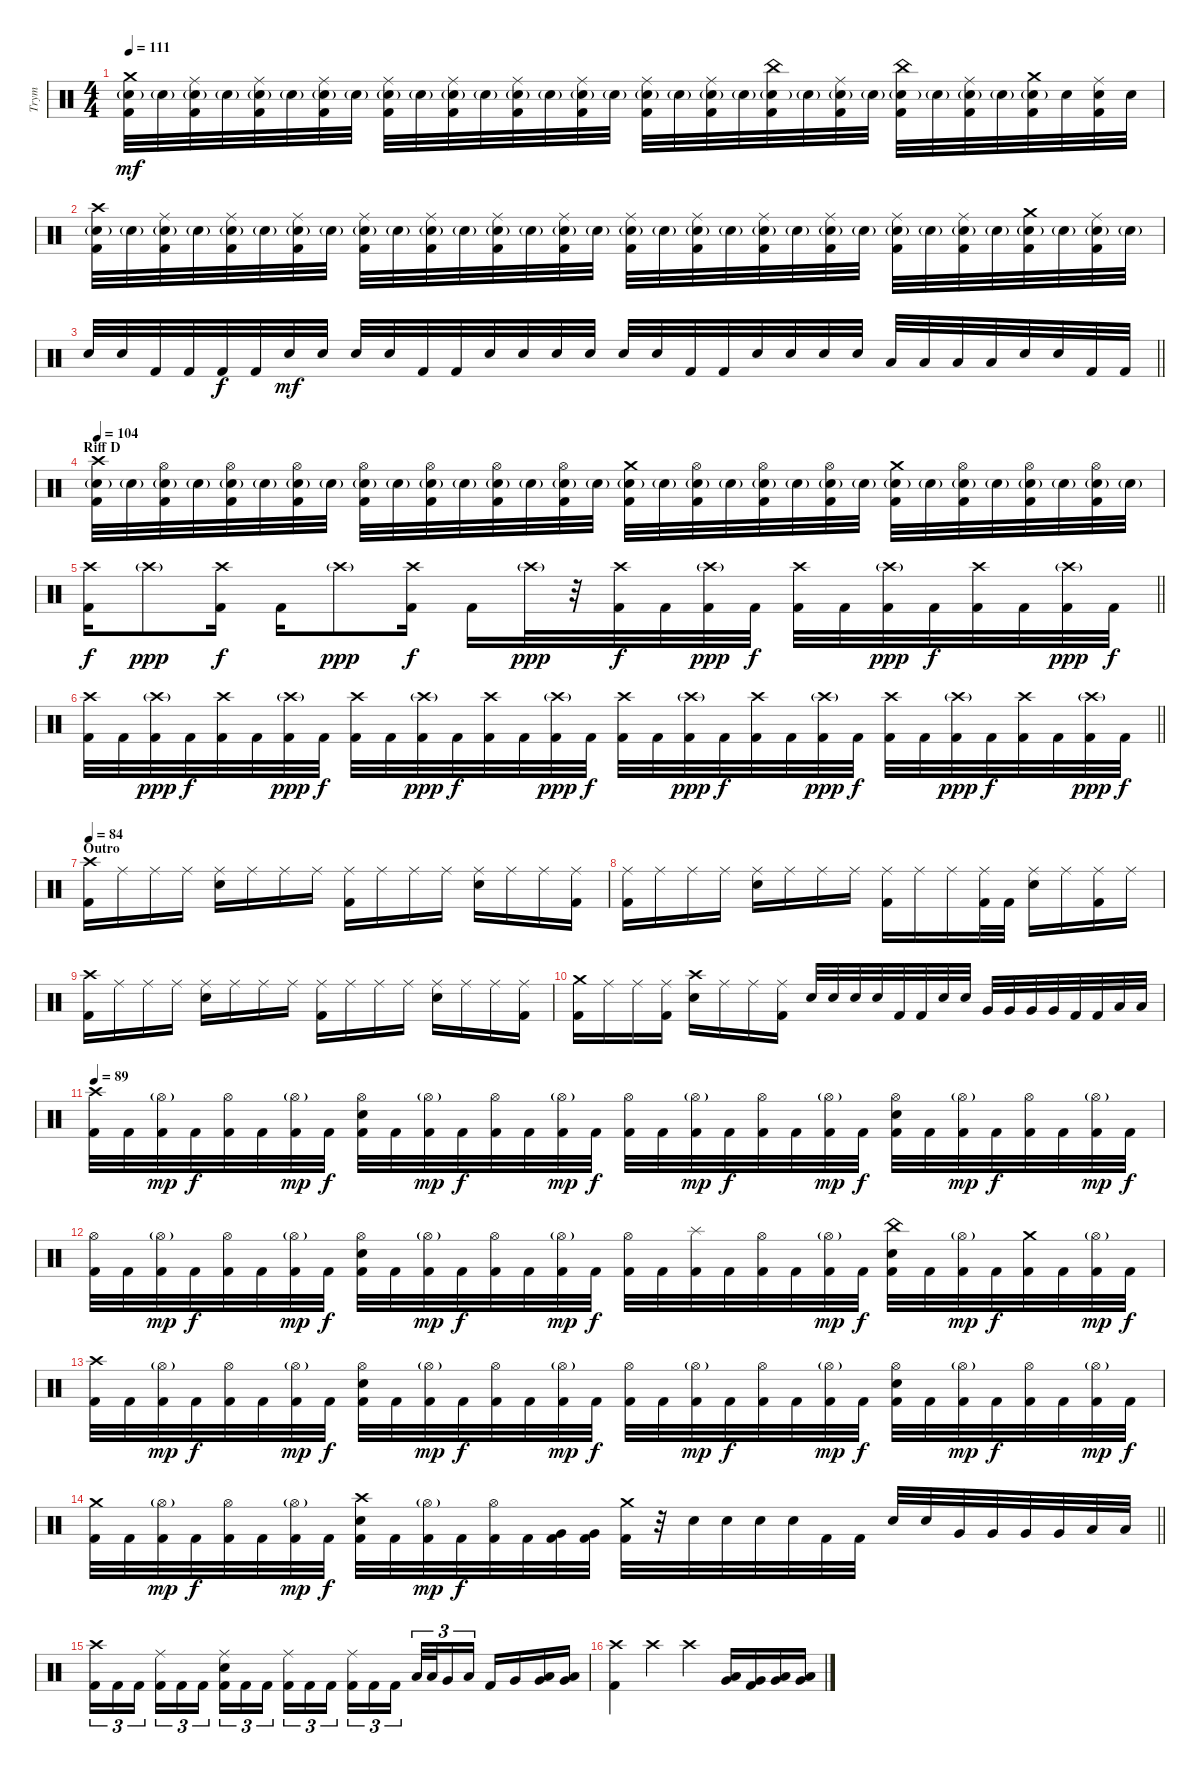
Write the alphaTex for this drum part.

\track ("Trym" "Trym") {instrument percussion}
\staff {score}
\articulation defaults
\ts (4 4)
\tempo 111
\clef neutral
\ks c
("Crash medium (hit)" "Snare (hit) 2"{g} "Kick (hit) 2").32{dy mf} "Snare (hit) 2"{g}.32 ("Ride (middle)" "Snare (hit) 2"{g} "Kick (hit) 2").32 "Snare (hit) 2"{g}.32 ("Ride (middle)" "Snare (hit) 2"{g} "Kick (hit) 2").32 "Snare (hit) 2"{g}.32 ("Ride (middle)" "Snare (hit) 2"{g} "Kick (hit) 2").32 "Snare (hit) 2"{g}.32 ("Ride (middle)" "Snare (hit) 2"{g} "Kick (hit) 2").32 "Snare (hit) 2"{g}.32 ("Ride (middle)" "Snare (hit) 2"{g} "Kick (hit) 2").32 "Snare (hit) 2"{g}.32 ("Ride (middle)" "Snare (hit) 2"{g} "Kick (hit) 2").32 "Snare (hit) 2"{g}.32 ("Ride (middle)" "Snare (hit) 2"{g} "Kick (hit) 2").32 "Snare (hit) 2"{g}.32 ("Ride (middle)" "Snare (hit) 2"{g} "Kick (hit) 2").32 "Snare (hit) 2"{g}.32 ("Ride (middle)" "Snare (hit) 2"{g} "Kick (hit) 2").32 "Snare (hit) 2"{g}.32 ("China (hit)" "Snare (hit) 2"{g} "Kick (hit) 2").32 "Snare (hit) 2"{g}.32 ("Ride (middle)" "Snare (hit) 2"{g} "Kick (hit) 2").32 "Snare (hit) 2"{g}.32 ("China (hit)" "Snare (hit) 2"{g} "Kick (hit) 2").32 "Snare (hit) 2"{g}.32 ("Ride (middle)" "Snare (hit) 2"{g} "Kick (hit) 2").32 "Snare (hit) 2"{g}.32 ("Crash medium (hit)" "Snare (hit) 2"{g} "Kick (hit) 2").32 "Snare (hit) 2".32 ("Ride (middle)" "Snare (hit) 2" "Kick (hit) 2").32 "Snare (hit) 2".32 |
("Crash high (hit)" "Snare (hit) 2"{g} "Kick (hit) 2").32 "Snare (hit) 2"{g}.32 ("Ride (middle)" "Snare (hit) 2"{g} "Kick (hit) 2").32 "Snare (hit) 2"{g}.32 ("Ride (middle)" "Snare (hit) 2"{g} "Kick (hit) 2").32 "Snare (hit) 2"{g}.32 ("Ride (middle)" "Snare (hit) 2"{g} "Kick (hit) 2").32 "Snare (hit) 2"{g}.32 ("Ride (middle)" "Snare (hit) 2"{g} "Kick (hit) 2").32 "Snare (hit) 2"{g}.32 ("Ride (middle)" "Snare (hit) 2"{g} "Kick (hit) 2").32 "Snare (hit) 2"{g}.32 ("Ride (middle)" "Snare (hit) 2"{g} "Kick (hit) 2").32 "Snare (hit) 2"{g}.32 ("Ride (middle)" "Snare (hit) 2"{g} "Kick (hit) 2").32 "Snare (hit) 2"{g}.32 ("Ride (middle)" "Snare (hit) 2"{g} "Kick (hit) 2").32 "Snare (hit) 2"{g}.32 ("Ride (middle)" "Snare (hit) 2"{g} "Kick (hit) 2").32 "Snare (hit) 2"{g}.32 ("Ride (middle)" "Snare (hit) 2"{g} "Kick (hit) 2").32 "Snare (hit) 2"{g}.32 ("Ride (middle)" "Snare (hit) 2"{g} "Kick (hit) 2").32 "Snare (hit) 2"{g}.32 ("Ride (middle)" "Snare (hit) 2"{g} "Kick (hit) 2").32 "Snare (hit) 2"{g}.32 ("Ride (middle)" "Snare (hit) 2"{g} "Kick (hit) 2").32 "Snare (hit) 2"{g}.32 ("Crash medium (hit)" "Snare (hit) 2"{g} "Kick (hit) 2").32 "Snare (hit) 2"{g}.32 ("Ride (middle)" "Snare (hit) 2"{g} "Kick (hit) 2").32 "Snare (hit) 2"{g}.32 |
\barLineRight lightlight "Snare (hit) 2".32 "Snare (hit) 2".32 "Kick (hit) 2".32 "Kick (hit) 2".32 "Kick (hit) 2".32{dy f} "Kick (hit) 2".32 "Snare (hit) 2".32{dy mf} "Snare (hit) 2".32 "Snare (hit) 2".32 "Snare (hit) 2".32 "Kick (hit) 2".32 "Kick (hit) 2".32 "Snare (hit) 2".32 "Snare (hit) 2".32 "Snare (hit) 2".32 "Snare (hit) 2".32 "Snare (hit) 2".32 "Snare (hit) 2".32 "Kick (hit) 2".32 "Kick (hit) 2".32 "Snare (hit) 2".32 "Snare (hit) 2".32 "Snare (hit) 2".32 "Snare (hit) 2".32 "Low Tom (hit)".32 "Low Tom (hit)".32 "Low Tom (hit)".32 "Low Tom (hit)".32 "Snare (hit) 2".32 "Snare (hit) 2".32 "Kick (hit) 2".32 "Kick (hit) 2".32
|
\section ("" "Riff D")
\tempo 104
("Crash high (hit)" "Snare (hit) 2"{g} "Kick (hit) 2").32 "Snare (hit) 2"{g}.32 ("Hi-Hat (open)" "Snare (hit) 2"{g} "Kick (hit) 2").32 "Snare (hit) 2"{g}.32 ("Hi-Hat (open)" "Snare (hit) 2"{g} "Kick (hit) 2").32 "Snare (hit) 2"{g}.32 ("Hi-Hat (open)" "Snare (hit) 2"{g} "Kick (hit) 2").32 "Snare (hit) 2"{g}.32 ("Hi-Hat (open)" "Snare (hit) 2"{g} "Kick (hit) 2").32 "Snare (hit) 2"{g}.32 ("Hi-Hat (open)" "Snare (hit) 2"{g} "Kick (hit) 2").32 "Snare (hit) 2"{g}.32 ("Hi-Hat (open)" "Snare (hit) 2"{g} "Kick (hit) 2").32 "Snare (hit) 2"{g}.32 ("Hi-Hat (open)" "Snare (hit) 2"{g} "Kick (hit) 2").32 "Snare (hit) 2"{g}.32 ("Crash medium (hit)" "Snare (hit) 2"{g} "Kick (hit) 2").32 "Snare (hit) 2"{g}.32 ("Hi-Hat (open)" "Snare (hit) 2"{g} "Kick (hit) 2").32 "Snare (hit) 2"{g}.32 ("Hi-Hat (open)" "Snare (hit) 2"{g} "Kick (hit) 2").32 "Snare (hit) 2"{g}.32 ("Hi-Hat (open)" "Snare (hit) 2"{g} "Kick (hit) 2").32 "Snare (hit) 2"{g}.32 ("Crash medium (hit)" "Snare (hit) 2"{g} "Kick (hit) 2").32 "Snare (hit) 2"{g}.32 ("Hi-Hat (open)" "Snare (hit) 2"{g} "Kick (hit) 2").32 "Snare (hit) 2"{g}.32 ("Hi-Hat (open)" "Snare (hit) 2"{g} "Kick (hit) 2").32 "Snare (hit) 2"{g}.32 ("Hi-Hat (open)" "Snare (hit) 2"{g} "Kick (hit) 2").32 "Snare (hit) 2"{g}.32 |
\barLineRight lightlight
("Crash high (hit)" "Kick (hit) 2").16{dy f} "Crash high (hit)"{g}.8{dy ppp} ("Crash high (hit)" "Kick (hit) 2").16{dy f} "Kick (hit) 2".16 "Crash high (hit)"{g}.8{dy ppp} ("Crash high (hit)" "Kick (hit) 2").16{dy f} "Kick (hit) 2".16 "Crash high (hit)"{g}.32{dy ppp} r.32 ("Crash high (hit)" "Kick (hit) 2").32{dy f} "Kick (hit) 2".32 ("Crash high (hit)"{g} "Kick (hit) 2").32{dy ppp} "Kick (hit) 2".32{dy f} ("Crash high (hit)" "Kick (hit) 2").32 "Kick (hit) 2".32 ("Crash high (hit)"{g} "Kick (hit) 2").32{dy ppp} "Kick (hit) 2".32{dy f} ("Crash high (hit)" "Kick (hit) 2").32 "Kick (hit) 2".32 ("Crash high (hit)"{g} "Kick (hit) 2").32{dy ppp} "Kick (hit) 2".32{dy f} |
\barLineRight lightlight
("Crash high (hit)" "Kick (hit) 2").32 "Kick (hit) 2".32 ("Crash high (hit)"{g} "Kick (hit) 2").32{dy ppp} "Kick (hit) 2".32{dy f} ("Crash high (hit)" "Kick (hit) 2").32 "Kick (hit) 2".32 ("Crash high (hit)"{g} "Kick (hit) 2").32{dy ppp} "Kick (hit) 2".32{dy f} ("Crash high (hit)" "Kick (hit) 2").32 "Kick (hit) 2".32 ("Crash high (hit)"{g} "Kick (hit) 2").32{dy ppp} "Kick (hit) 2".32{dy f} ("Crash high (hit)" "Kick (hit) 2").32 "Kick (hit) 2".32 ("Crash high (hit)"{g} "Kick (hit) 2").32{dy ppp} "Kick (hit) 2".32{dy f} ("Crash high (hit)" "Kick (hit) 2").32 "Kick (hit) 2".32 ("Crash high (hit)"{g} "Kick (hit) 2").32{dy ppp} "Kick (hit) 2".32{dy f} ("Crash high (hit)" "Kick (hit) 2").32 "Kick (hit) 2".32 ("Crash high (hit)"{g} "Kick (hit) 2").32{dy ppp} "Kick (hit) 2".32{dy f} ("Crash high (hit)" "Kick (hit) 2").32 "Kick (hit) 2".32 ("Crash high (hit)"{g} "Kick (hit) 2").32{dy ppp} "Kick (hit) 2".32{dy f} ("Crash high (hit)" "Kick (hit) 2").32 "Kick (hit) 2".32 ("Crash high (hit)"{g} "Kick (hit) 2").32{dy ppp} "Kick (hit) 2".32{dy f} |
\section ("" "Outro")
\tempo 84
("Crash high (hit)" "Kick (hit) 2").16 "Ride (middle)".16 "Ride (middle)".16 "Ride (middle)".16 ("Ride (middle)" "Snare (hit) 2").16 "Ride (middle)".16 "Ride (middle)".16 "Ride (middle)".16 ("Ride (middle)" "Kick (hit) 2").16 "Ride (middle)".16 "Ride (middle)".16 "Ride (middle)".16 ("Ride (middle)" "Snare (hit) 2").16 "Ride (middle)".16 "Ride (middle)".16 ("Ride (middle)" "Kick (hit) 2").16 |
("Ride (middle)" "Kick (hit) 2").16 "Ride (middle)".16 "Ride (middle)".16 "Ride (middle)".16 ("Ride (middle)" "Snare (hit) 2").16 "Ride (middle)".16 "Ride (middle)".16 "Ride (middle)".16 ("Ride (middle)" "Kick (hit) 2").16 "Ride (middle)".16 "Ride (middle)".16 ("Ride (middle)" "Kick (hit) 2").32 "Kick (hit) 2".32 ("Ride (middle)" "Snare (hit) 2").16 "Ride (middle)".16 ("Ride (middle)" "Kick (hit) 2").16 "Ride (middle)".16 |
("Crash high (hit)" "Kick (hit) 2").16 "Ride (middle)".16 "Ride (middle)".16 "Ride (middle)".16 ("Ride (middle)" "Snare (hit) 2").16 "Ride (middle)".16 "Ride (middle)".16 "Ride (middle)".16 ("Ride (middle)" "Kick (hit) 2").16 "Ride (middle)".16 "Ride (middle)".16 "Ride (middle)".16 ("Ride (middle)" "Snare (hit) 2").16 "Ride (middle)".16 "Ride (middle)".16 ("Ride (middle)" "Kick (hit) 2").16 |
("Crash medium (hit)" "Kick (hit) 2").16 "Ride (middle)".16 "Ride (middle)".16 ("Ride (middle)" "Kick (hit) 2").16 ("Crash high (hit)" "Snare (hit) 2").16 "Ride (middle)".16 "Ride (middle)".16 ("Ride (middle)" "Kick (hit) 2").16 "Snare (hit) 2".32 "Snare (hit) 2".32 "Snare (hit) 2".32 "Snare (hit) 2".32 "Kick (hit) 2".32 "Kick (hit) 2".32 "Snare (hit) 2".32 "Snare (hit) 2".32 "Very Low Tom (hit)".32 "Very Low Tom (hit)".32 "Very Low Tom (hit)".32 "Very Low Tom (hit)".32 "Kick (hit) 2".32 "Kick (hit) 2".32 "Low Floor Tom (hit)".32 "Low Floor Tom (hit)".32 |
\tempo 89
("Crash high (hit)" "Kick (hit) 2").32 "Kick (hit) 2".32 ("Hi-Hat (open)"{g} "Kick (hit) 2").32{dy mp} "Kick (hit) 2".32{dy f} ("Hi-Hat (open)" "Kick (hit) 2").32 "Kick (hit) 2".32 ("Hi-Hat (open)"{g} "Kick (hit) 2").32{dy mp} "Kick (hit) 2".32{dy f} ("Hi-Hat (open)" "Snare (hit) 2" "Kick (hit) 2").32 "Kick (hit) 2".32 ("Hi-Hat (open)"{g} "Kick (hit) 2").32{dy mp} "Kick (hit) 2".32{dy f} ("Hi-Hat (open)" "Kick (hit) 2").32 "Kick (hit) 2".32 ("Hi-Hat (open)"{g} "Kick (hit) 2").32{dy mp} "Kick (hit) 2".32{dy f} ("Hi-Hat (open)" "Kick (hit) 2").32 "Kick (hit) 2".32 ("Hi-Hat (open)"{g} "Kick (hit) 2").32{dy mp} "Kick (hit) 2".32{dy f} ("Hi-Hat (open)" "Kick (hit) 2").32 "Kick (hit) 2".32 ("Hi-Hat (open)"{g} "Kick (hit) 2").32{dy mp} "Kick (hit) 2".32{dy f} ("Hi-Hat (open)" "Snare (hit) 2" "Kick (hit) 2").32 "Kick (hit) 2".32 ("Hi-Hat (open)"{g} "Kick (hit) 2").32{dy mp} "Kick (hit) 2".32{dy f} ("Hi-Hat (open)" "Kick (hit) 2").32 "Kick (hit) 2".32 ("Hi-Hat (open)"{g} "Kick (hit) 2").32{dy mp} "Kick (hit) 2".32{dy f} |
("Hi-Hat (open)" "Kick (hit) 2").32 "Kick (hit) 2".32 ("Hi-Hat (open)"{g} "Kick (hit) 2").32{dy mp} "Kick (hit) 2".32{dy f} ("Hi-Hat (open)" "Kick (hit) 2").32 "Kick (hit) 2".32 ("Hi-Hat (open)"{g} "Kick (hit) 2").32{dy mp} "Kick (hit) 2".32{dy f} ("Hi-Hat (open)" "Snare (hit) 2" "Kick (hit) 2").32 "Kick (hit) 2".32 ("Hi-Hat (open)"{g} "Kick (hit) 2").32{dy mp} "Kick (hit) 2".32{dy f} ("Hi-Hat (open)" "Kick (hit) 2").32 "Kick (hit) 2".32 ("Hi-Hat (open)"{g} "Kick (hit) 2").32{dy mp} "Kick (hit) 2".32{dy f} ("Hi-Hat (open)" "Kick (hit) 2").32 "Kick (hit) 2".32 ("Splash (hit)" "Kick (hit) 2").32 "Kick (hit) 2".32 ("Hi-Hat (open)" "Kick (hit) 2").32 "Kick (hit) 2".32 ("Hi-Hat (open)"{g} "Kick (hit) 2").32{dy mp} "Kick (hit) 2".32{dy f} ("China (hit)" "Snare (hit) 2" "Kick (hit) 2").32 "Kick (hit) 2".32 ("Hi-Hat (open)"{g} "Kick (hit) 2").32{dy mp} "Kick (hit) 2".32{dy f} ("Crash medium (hit)" "Kick (hit) 2").32 "Kick (hit) 2".32 ("Hi-Hat (open)"{g} "Kick (hit) 2").32{dy mp} "Kick (hit) 2".32{dy f} |
("Crash high (hit)" "Kick (hit) 2").32 "Kick (hit) 2".32 ("Hi-Hat (open)"{g} "Kick (hit) 2").32{dy mp} "Kick (hit) 2".32{dy f} ("Hi-Hat (open)" "Kick (hit) 2").32 "Kick (hit) 2".32 ("Hi-Hat (open)"{g} "Kick (hit) 2").32{dy mp} "Kick (hit) 2".32{dy f} ("Hi-Hat (open)" "Snare (hit) 2" "Kick (hit) 2").32 "Kick (hit) 2".32 ("Hi-Hat (open)"{g} "Kick (hit) 2").32{dy mp} "Kick (hit) 2".32{dy f} ("Hi-Hat (open)" "Kick (hit) 2").32 "Kick (hit) 2".32 ("Hi-Hat (open)"{g} "Kick (hit) 2").32{dy mp} "Kick (hit) 2".32{dy f} ("Hi-Hat (open)" "Kick (hit) 2").32 "Kick (hit) 2".32 ("Hi-Hat (open)"{g} "Kick (hit) 2").32{dy mp} "Kick (hit) 2".32{dy f} ("Hi-Hat (open)" "Kick (hit) 2").32 "Kick (hit) 2".32 ("Hi-Hat (open)"{g} "Kick (hit) 2").32{dy mp} "Kick (hit) 2".32{dy f} ("Hi-Hat (open)" "Snare (hit) 2" "Kick (hit) 2").32 "Kick (hit) 2".32 ("Hi-Hat (open)"{g} "Kick (hit) 2").32{dy mp} "Kick (hit) 2".32{dy f} ("Hi-Hat (open)" "Kick (hit) 2").32 "Kick (hit) 2".32 ("Hi-Hat (open)"{g} "Kick (hit) 2").32{dy mp} "Kick (hit) 2".32{dy f} |
\barLineRight lightlight
("Crash medium (hit)" "Kick (hit) 2").32 "Kick (hit) 2".32 ("Hi-Hat (open)"{g} "Kick (hit) 2").32{dy mp} "Kick (hit) 2".32{dy f} ("Hi-Hat (open)" "Kick (hit) 2").32 "Kick (hit) 2".32 ("Hi-Hat (open)"{g} "Kick (hit) 2").32{dy mp} "Kick (hit) 2".32{dy f} ("Crash high (hit)" "Snare (hit) 2" "Kick (hit) 2").32 "Kick (hit) 2".32 ("Hi-Hat (open)"{g} "Kick (hit) 2").32{dy mp} "Kick (hit) 2".32{dy f} ("Hi-Hat (open)" "Kick (hit) 2").32 "Kick (hit) 2".32 ("Very Low Tom (hit)" "Kick (hit) 2").32 ("Very Low Tom (hit)" "Kick (hit) 2").32 ("Crash medium (hit)" "Kick (hit) 2").32 r.32 "Snare (hit) 2".32 "Snare (hit) 2".32 "Snare (hit) 2".32 "Snare (hit) 2".32 "Kick (hit) 2".32 "Kick (hit) 2".32 "Snare (hit) 2".32 "Snare (hit) 2".32 "Very Low Tom (hit)".32 "Very Low Tom (hit)".32 "Very Low Tom (hit)".32 "Very Low Tom (hit)".32 "Low Floor Tom (hit)".32 "Low Floor Tom (hit)".32 |
("Crash high (hit)" "Kick (hit) 2").16{tu (3 2)} "Kick (hit) 2".16{tu (3 2)} "Kick (hit) 2".16{tu (3 2) beam splitsecondary} ("Ride (middle)" "Kick (hit) 2").16{tu (3 2)} "Kick (hit) 2".16{tu (3 2)} "Kick (hit) 2".16{tu (3 2)} ("Ride (middle)" "Snare (hit) 2" "Kick (hit) 2").16{tu (3 2)} "Kick (hit) 2".16{tu (3 2)} "Kick (hit) 2".16{tu (3 2) beam splitsecondary} ("Ride (middle)" "Kick (hit) 2").16{tu (3 2)} "Kick (hit) 2".16{tu (3 2)} "Kick (hit) 2".16{tu (3 2)} ("Ride (middle)" "Kick (hit) 2").16{tu (3 2)} "Kick (hit) 2".16{tu (3 2)} "Kick (hit) 2".16{tu (3 2) beam splitsecondary} "Low Tom (hit)".32{tu (3 2)} "Low Tom (hit)".32{tu (3 2)} "Very Low Tom (hit)".16{tu (3 2)} "Low Floor Tom (hit)".16{tu (3 2)} "Kick (hit) 2".16 "Very Low Tom (hit)".16 ("Very Low Tom (hit)" "Low Floor Tom (hit)").16 ("Very Low Tom (hit)" "Low Floor Tom (hit)").16 |
("Crash high (hit)" "Kick (hit) 2").4 "Crash high (hit)".4 "Crash high (hit)".4 ("Low Tom (hit)" "Very Low Tom (hit)").16 ("Very Low Tom (hit)" "Kick (hit) 2").16 ("Very Low Tom (hit)" "Low Floor Tom (hit)").16 ("Very Low Tom (hit)" "Low Floor Tom (hit)").16
